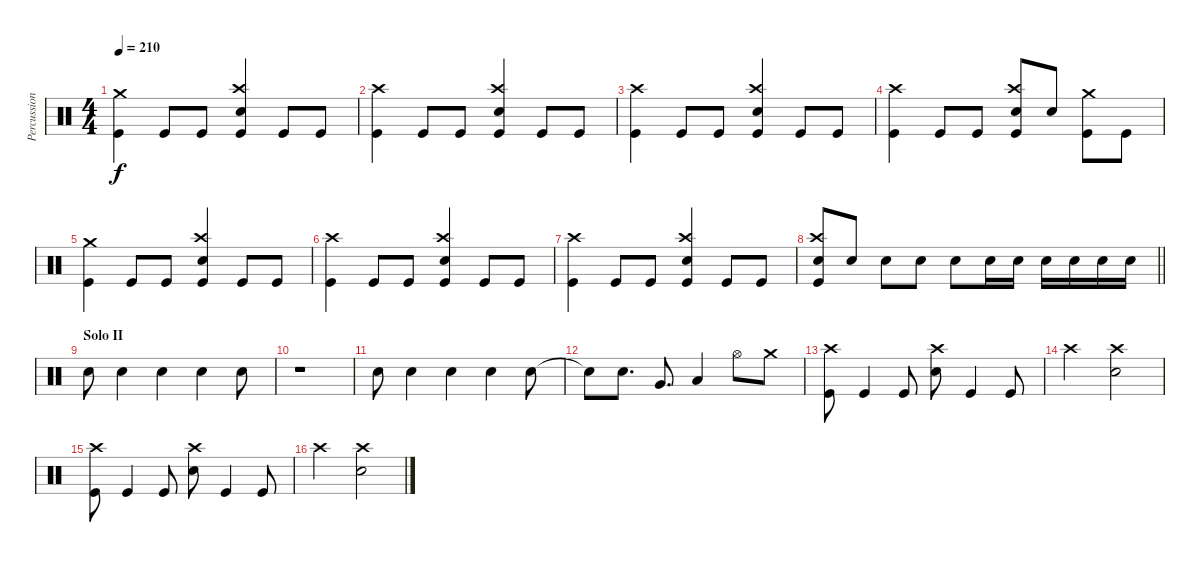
\track ("Percussion" "Percussion") {instrument percussion}
\staff {score}
\articulation defaults
\ts (4 4)
\tempo 210
\clef neutral
\ks c
("Crash medium (hit)" "Kick (hit)").4{dy f} "Kick (hit)".8 "Kick (hit)".8 ("Crash high (hit)" "Electric Snare (hit)" "Kick (hit)").4 "Kick (hit)".8 "Kick (hit)".8 |
("Crash high (hit)" "Kick (hit)").4 "Kick (hit)".8 "Kick (hit)".8 ("Crash high (hit)" "Electric Snare (hit)" "Kick (hit)").4 "Kick (hit)".8 "Kick (hit)".8 |
("Crash high (hit)" "Kick (hit)").4 "Kick (hit)".8 "Kick (hit)".8 ("Crash high (hit)" "Electric Snare (hit)" "Kick (hit)").4 "Kick (hit)".8 "Kick (hit)".8 |
("Crash high (hit)" "Kick (hit)").4 "Kick (hit)".8 "Kick (hit)".8 ("Crash high (hit)" "Electric Snare (hit)" "Kick (hit)").8 "Electric Snare (hit)".8 ("Crash medium (hit)" "Kick (hit)").8 "Kick (hit)".8 |
("Crash medium (hit)" "Kick (hit)").4 "Kick (hit)".8 "Kick (hit)".8 ("Crash high (hit)" "Electric Snare (hit)" "Kick (hit)").4 "Kick (hit)".8 "Kick (hit)".8 |
("Crash high (hit)" "Kick (hit)").4 "Kick (hit)".8 "Kick (hit)".8 ("Crash high (hit)" "Electric Snare (hit)" "Kick (hit)").4 "Kick (hit)".8 "Kick (hit)".8 |
("Crash high (hit)" "Kick (hit)").4 "Kick (hit)".8 "Kick (hit)".8 ("Crash high (hit)" "Electric Snare (hit)" "Kick (hit)").4 "Kick (hit)".8 "Kick (hit)".8 |
\barLineRight lightlight
("Crash high (hit)" "Electric Snare (hit)" "Kick (hit)").8 "Electric Snare (hit)".8 "Electric Snare (hit)".8 "Electric Snare (hit)".8 "Electric Snare (hit)".8 "Electric Snare (hit)".16 "Electric Snare (hit)".16 "Electric Snare (hit)".16 "Electric Snare (hit)".16 "Electric Snare (hit)".16 "Electric Snare (hit)".16 |
\section ("" "Solo II")
"Electric Snare (hit)".8 "Electric Snare (hit)".4 "Electric Snare (hit)".4 "Electric Snare (hit)".4 "Electric Snare (hit)".8 |
r.1 |
"Electric Snare (hit)".8 "Electric Snare (hit)".4 "Electric Snare (hit)".4 "Electric Snare (hit)".4 "Electric Snare (hit)".8 |
"Electric Snare (hit)"{t}.8 "Electric Snare (hit)".8{d} "Very Low Tom (hit)".8{d} "Low Floor Tom (hit)".4 "Hi-Hat (open)".8 "Crash medium (hit)".8 |
("Crash high (hit)" "Kick (hit)").8 "Kick (hit)".4 "Kick (hit)".8 ("Crash high (hit)" "Electric Snare (hit)").8 "Kick (hit)".4 "Kick (hit)".8 |
"Crash high (hit)".2 ("Crash high (hit)" "Electric Snare (hit)").2 |
("Crash high (hit)" "Kick (hit)").8 "Kick (hit)".4 "Kick (hit)".8 ("Crash high (hit)" "Electric Snare (hit)").8 "Kick (hit)".4 "Kick (hit)".8 |
"Crash high (hit)".2 ("Crash high (hit)" "Electric Snare (hit)").2
